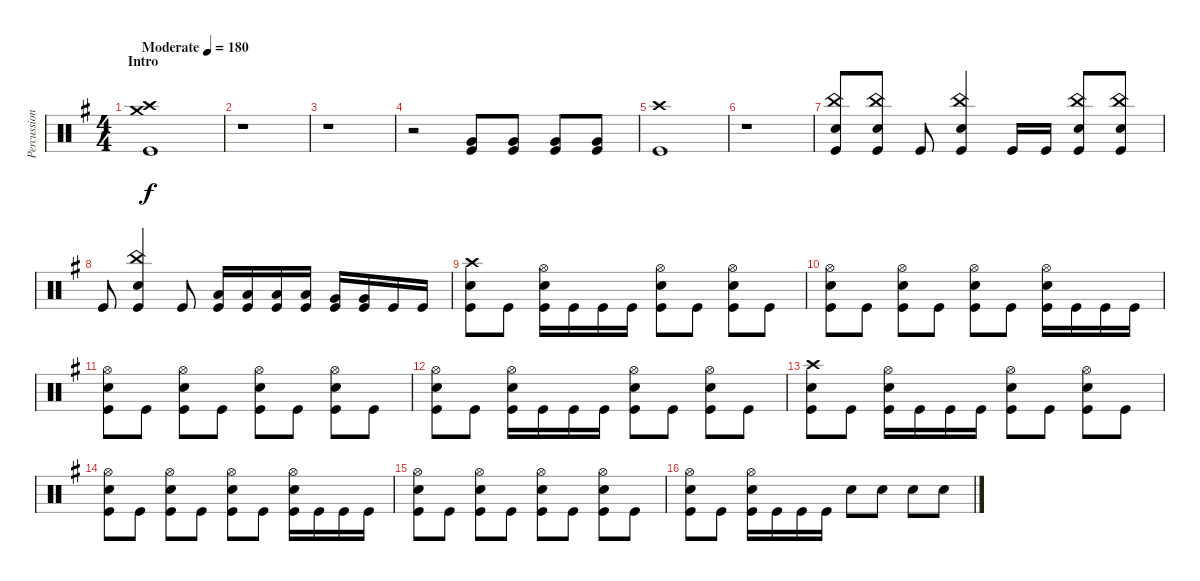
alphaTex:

\track ("Percussion" "Percussion") {instrument percussion}
\staff {score}
\articulation defaults
\ts (4 4)
\section ("" "Intro")
\tempo (180 "Moderate")
\clef neutral
\ks g
("Crash high (hit)" "Crash medium (hit)" "Kick (hit)").1{dy f} |
r.1 |
r.1 |
r.2 ("Very Low Tom (hit)" "Kick (hit)").8 ("Very Low Tom (hit)" "Kick (hit)").8 ("Very Low Tom (hit)" "Kick (hit)").8 ("Very Low Tom (hit)" "Kick (hit)").8 |
("Crash high (hit)" "Kick (hit)").1 |
r.1 |
("China (hit)" "Electric Snare (hit)" "Kick (hit)").8 ("China (hit)" "Electric Snare (hit)" "Kick (hit)").8 "Kick (hit)".8 ("China (hit)" "Electric Snare (hit)" "Kick (hit)").4 "Kick (hit)".16 "Kick (hit)".16 ("China (hit)" "Electric Snare (hit)" "Kick (hit)").8 ("China (hit)" "Electric Snare (hit)" "Kick (hit)").8 |
"Kick (hit)".8 ("China (hit)" "Electric Snare (hit)" "Kick (hit)").4 "Kick (hit)".8 ("Low Tom (hit)" "Kick (hit)").16 ("Low Tom (hit)" "Kick (hit)").16 ("Low Tom (hit)" "Kick (hit)").16 ("Low Tom (hit)" "Kick (hit)").16 ("Very Low Tom (hit)" "Kick (hit)").16 ("Very Low Tom (hit)" "Kick (hit)").16 "Kick (hit)".16 "Kick (hit)".16 |
("Crash high (hit)" "Electric Snare (hit)" "Kick (hit)").8 "Kick (hit)".8 ("Hi-Hat (open)" "Electric Snare (hit)" "Kick (hit)").16 "Kick (hit)".16 "Kick (hit)".16 "Kick (hit)".16 ("Hi-Hat (open)" "Electric Snare (hit)" "Kick (hit)").8 "Kick (hit)".8 ("Hi-Hat (open)" "Electric Snare (hit)" "Kick (hit)").8 "Kick (hit)".8 |
("Hi-Hat (open)" "Electric Snare (hit)" "Kick (hit)").8 "Kick (hit)".8 ("Hi-Hat (open)" "Electric Snare (hit)" "Kick (hit)").8 "Kick (hit)".8 ("Hi-Hat (open)" "Electric Snare (hit)" "Kick (hit)").8 "Kick (hit)".8 ("Hi-Hat (open)" "Electric Snare (hit)" "Kick (hit)").16 "Kick (hit)".16 "Kick (hit)".16 "Kick (hit)".16 |
("Hi-Hat (open)" "Electric Snare (hit)" "Kick (hit)").8 "Kick (hit)".8 ("Hi-Hat (open)" "Electric Snare (hit)" "Kick (hit)").8 "Kick (hit)".8 ("Hi-Hat (open)" "Electric Snare (hit)" "Kick (hit)").8 "Kick (hit)".8 ("Hi-Hat (open)" "Electric Snare (hit)" "Kick (hit)").8 "Kick (hit)".8 |
("Hi-Hat (open)" "Electric Snare (hit)" "Kick (hit)").8 "Kick (hit)".8 ("Hi-Hat (open)" "Electric Snare (hit)" "Kick (hit)").16 "Kick (hit)".16 "Kick (hit)".16 "Kick (hit)".16 ("Hi-Hat (open)" "Electric Snare (hit)" "Kick (hit)").8 "Kick (hit)".8 ("Hi-Hat (open)" "Electric Snare (hit)" "Kick (hit)").8 "Kick (hit)".8 |
("Crash high (hit)" "Electric Snare (hit)" "Kick (hit)").8 "Kick (hit)".8 ("Hi-Hat (open)" "Electric Snare (hit)" "Kick (hit)").16 "Kick (hit)".16 "Kick (hit)".16 "Kick (hit)".16 ("Hi-Hat (open)" "Electric Snare (hit)" "Kick (hit)").8 "Kick (hit)".8 ("Hi-Hat (open)" "Electric Snare (hit)" "Kick (hit)").8 "Kick (hit)".8 |
("Hi-Hat (open)" "Electric Snare (hit)" "Kick (hit)").8 "Kick (hit)".8 ("Hi-Hat (open)" "Electric Snare (hit)" "Kick (hit)").8 "Kick (hit)".8 ("Hi-Hat (open)" "Electric Snare (hit)" "Kick (hit)").8 "Kick (hit)".8 ("Hi-Hat (open)" "Electric Snare (hit)" "Kick (hit)").16 "Kick (hit)".16 "Kick (hit)".16 "Kick (hit)".16 |
("Hi-Hat (open)" "Electric Snare (hit)" "Kick (hit)").8 "Kick (hit)".8 ("Hi-Hat (open)" "Electric Snare (hit)" "Kick (hit)").8 "Kick (hit)".8 ("Hi-Hat (open)" "Electric Snare (hit)" "Kick (hit)").8 "Kick (hit)".8 ("Hi-Hat (open)" "Electric Snare (hit)" "Kick (hit)").8 "Kick (hit)".8 |
("Hi-Hat (open)" "Electric Snare (hit)" "Kick (hit)").8 "Kick (hit)".8 ("Hi-Hat (open)" "Electric Snare (hit)" "Kick (hit)").16 "Kick (hit)".16 "Kick (hit)".16 "Kick (hit)".16 "Electric Snare (hit)".8 "Electric Snare (hit)".8 "Electric Snare (hit)".8 "Electric Snare (hit)".8
